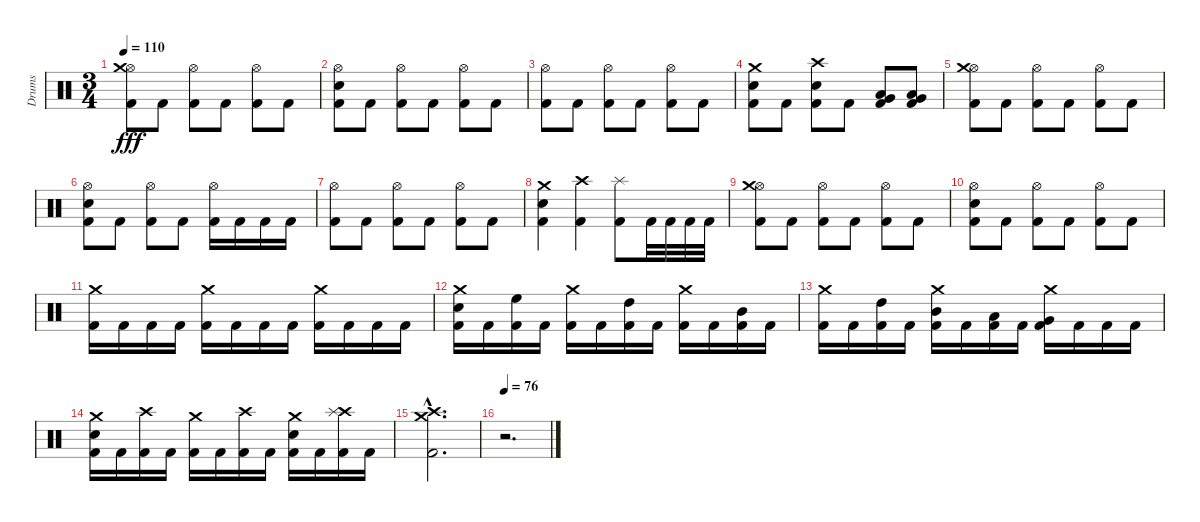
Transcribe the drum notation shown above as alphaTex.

\track ("Drums" "Drums") {instrument percussion}
\staff {score}
\articulation defaults
\ts (3 4)
\tempo 110
\clef neutral
\ks c
("Hi-Hat (open)" "Crash medium (hit)" "Kick (hit) 2").8{dy fff} "Kick (hit) 2".8 ("Hi-Hat (open)" "Kick (hit) 2").8 "Kick (hit) 2".8 ("Hi-Hat (open)" "Kick (hit) 2").8 "Kick (hit) 2".8 |
("Hi-Hat (open)" "Snare (hit) 2" "Kick (hit) 2").8 "Kick (hit) 2".8 ("Hi-Hat (open)" "Kick (hit) 2").8 "Kick (hit) 2".8 ("Hi-Hat (open)" "Kick (hit) 2").8 "Kick (hit) 2".8 |
("Hi-Hat (open)" "Kick (hit) 2").8 "Kick (hit) 2".8 ("Hi-Hat (open)" "Kick (hit) 2").8 "Kick (hit) 2".8 ("Hi-Hat (open)" "Kick (hit) 2").8 "Kick (hit) 2".8 |
("Crash medium (hit)" "Snare (hit) 2" "Kick (hit) 2").8 "Kick (hit) 2".8 ("Crash high (hit)" "Snare (hit) 2" "Kick (hit) 2").8 "Kick (hit) 2".8 ("Low Floor Tom (hit)" "Very Low Tom (hit)" "Kick (hit) 2").8 ("Low Floor Tom (hit)" "Very Low Tom (hit)" "Kick (hit) 2").8 |
("Hi-Hat (open)" "Crash medium (hit)" "Kick (hit) 2").8 "Kick (hit) 2".8 ("Hi-Hat (open)" "Kick (hit) 2").8 "Kick (hit) 2".8 ("Hi-Hat (open)" "Kick (hit) 2").8 "Kick (hit) 2".8 |
("Hi-Hat (open)" "Snare (hit) 2" "Kick (hit) 2").8 "Kick (hit) 2".8 ("Hi-Hat (open)" "Kick (hit) 2").8 "Kick (hit) 2".8 ("Hi-Hat (open)" "Kick (hit) 2").16 "Kick (hit) 2".16 "Kick (hit) 2".16 "Kick (hit) 2".16 |
("Hi-Hat (open)" "Kick (hit) 2").8 "Kick (hit) 2".8 ("Hi-Hat (open)" "Kick (hit) 2").8 "Kick (hit) 2".8 ("Hi-Hat (open)" "Kick (hit) 2").8 "Kick (hit) 2".8 |
("Crash medium (hit)" "Snare (hit) 2" "Kick (hit) 2").4 ("Crash high (hit)" "Kick (hit) 2").4 ("Splash (hit)" "Kick (hit) 2").8 "Kick (hit) 2".32 "Kick (hit) 2".32 "Kick (hit) 2".32 "Kick (hit) 2".32 |
("Hi-Hat (open)" "Crash medium (hit)" "Kick (hit) 2").8 "Kick (hit) 2".8 ("Hi-Hat (open)" "Kick (hit) 2").8 "Kick (hit) 2".8 ("Hi-Hat (open)" "Kick (hit) 2").8 "Kick (hit) 2".8 |
("Hi-Hat (open)" "Snare (hit) 2" "Kick (hit) 2").8 "Kick (hit) 2".8 ("Hi-Hat (open)" "Kick (hit) 2").8 "Kick (hit) 2".8 ("Hi-Hat (open)" "Kick (hit) 2").8 "Kick (hit) 2".8 |
("Crash medium (hit)" "Kick (hit) 2").16 "Kick (hit) 2".16 "Kick (hit) 2".16 "Kick (hit) 2".16 ("Crash medium (hit)" "Kick (hit) 2").16 "Kick (hit) 2".16 "Kick (hit) 2".16 "Kick (hit) 2".16 ("Crash medium (hit)" "Kick (hit) 2").16 "Kick (hit) 2".16 "Kick (hit) 2".16 "Kick (hit) 2".16 |
("Crash medium (hit)" "Snare (hit) 2" "Kick (hit) 2").16 "Kick (hit) 2".16 ("High Floor Tom (hit)" "Kick (hit) 2").16 "Kick (hit) 2".16 ("Crash medium (hit)" "Kick (hit) 2").16 "Kick (hit) 2".16 ("High Tom (hit)" "Kick (hit) 2").16 "Kick (hit) 2".16 ("Crash medium (hit)" "Kick (hit) 2").16 "Kick (hit) 2".16 ("Mid Tom (hit)" "Kick (hit) 2").16 "Kick (hit) 2".16 |
("Crash medium (hit)" "Kick (hit) 2").16 "Kick (hit) 2".16 ("High Tom (hit)" "Kick (hit) 2").16 "Kick (hit) 2".16 ("Crash medium (hit)" "Mid Tom (hit)" "Kick (hit) 2").16 "Kick (hit) 2".16 ("Low Tom (hit)" "Kick (hit) 2").16 "Kick (hit) 2".16 ("Crash medium (hit)" "Very Low Tom (hit)" "Kick (hit) 2").16 "Kick (hit) 2".16 "Kick (hit) 2".16 "Kick (hit) 2".16 |
("Crash medium (hit)" "Snare (hit) 2" "Kick (hit) 2").16 "Kick (hit) 2".16 ("Crash high (hit)" "Kick (hit) 2").16 "Kick (hit) 2".16 ("Crash medium (hit)" "Kick (hit) 2").16 "Kick (hit) 2".16 ("Crash high (hit)" "Kick (hit) 2").16 "Kick (hit) 2".16 ("Crash medium (hit)" "Snare (hit) 2" "Kick (hit) 2").16 "Kick (hit) 2".16 ("Crash high (hit)" "Splash (hit)" "Kick (hit) 2").16 "Kick (hit) 2".16 |
("Crash medium (hit)"{hac} "Crash high (hit)"{hac} "Kick (hit) 2"{hac}).2{d} |
\tempo 76
r.2{d}
